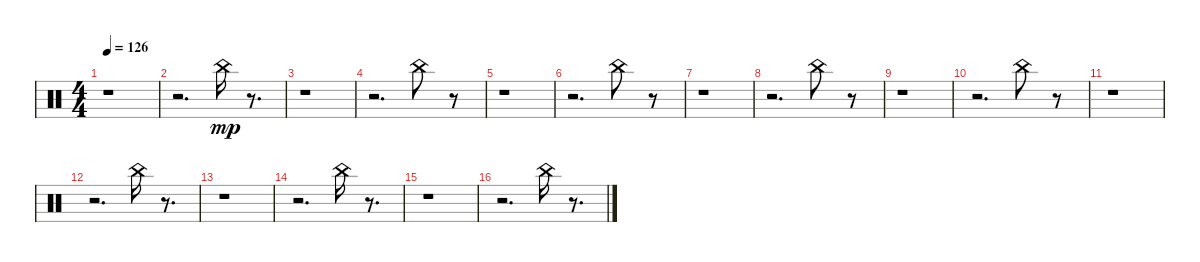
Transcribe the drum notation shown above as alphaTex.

\track "" {instrument percussion}
\staff {score}
\articulation defaults
\ts (4 4)
\tempo 126
\clef neutral
\ks c
r.1{dy mp} |
r.2{d} "China (hit)".16 r.8{d} |
r.1 |
r.2{d} "China (hit)".8 r.8 |
r.1 |
r.2{d} "China (hit)".8 r.8 |
r.1 |
r.2{d} "China (hit)".8 r.8 |
r.1 |
r.2{d} "China (hit)".8 r.8 |
r.1 |
r.2{d} "China (hit)".16 r.8{d} |
r.1 |
r.2{d} "China (hit)".16 r.8{d} |
r.1 |
r.2{d} "China (hit)".16 r.8{d}
